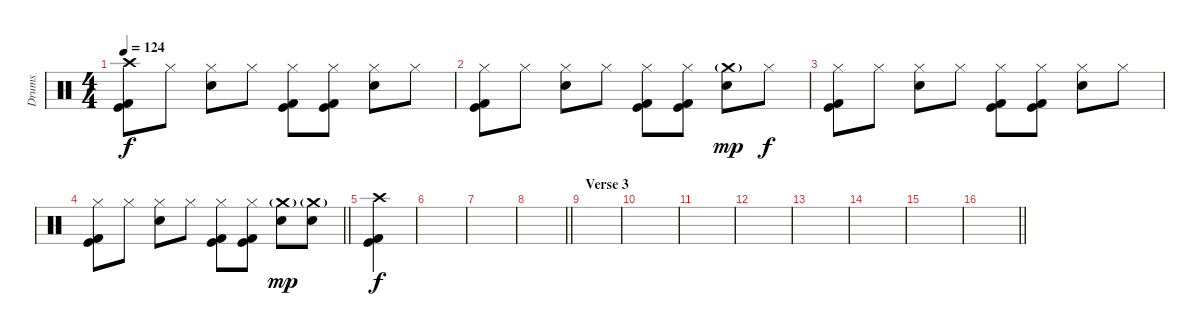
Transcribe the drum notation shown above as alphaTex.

\track ("Drums" "Drums") {instrument percussion}
\staff {score}
\articulation defaults
\ts (4 4)
\tempo 124
\clef neutral
\ks c
("Crash high (hit)" "Kick (hit)" "Kick (hit) 2").8{dy f} "Hi-Hat (closed)".8 ("Hi-Hat (closed)" "Electric Snare (hit)").8 "Hi-Hat (closed)".8 ("Hi-Hat (closed)" "Kick (hit)" "Kick (hit) 2").8 ("Hi-Hat (closed)" "Kick (hit)" "Kick (hit) 2").8 ("Hi-Hat (closed)" "Electric Snare (hit)").8 "Hi-Hat (closed)".8 |
("Hi-Hat (closed)" "Kick (hit)" "Kick (hit) 2").8 "Hi-Hat (closed)".8 ("Hi-Hat (closed)" "Electric Snare (hit)").8 "Hi-Hat (closed)".8 ("Hi-Hat (closed)" "Kick (hit)" "Kick (hit) 2").8 ("Hi-Hat (closed)" "Kick (hit)" "Kick (hit) 2").8 ("Crash medium (hit)"{g} "Electric Snare (hit)").8{dy mp} "Hi-Hat (closed)".8{dy f} |
("Hi-Hat (closed)" "Kick (hit)" "Kick (hit) 2").8 "Hi-Hat (closed)".8 ("Hi-Hat (closed)" "Electric Snare (hit)").8 "Hi-Hat (closed)".8 ("Hi-Hat (closed)" "Kick (hit)" "Kick (hit) 2").8 ("Hi-Hat (closed)" "Kick (hit)" "Kick (hit) 2").8 ("Hi-Hat (closed)" "Electric Snare (hit)").8 "Hi-Hat (closed)".8 |
\barLineRight lightlight
("Hi-Hat (closed)" "Kick (hit)" "Kick (hit) 2").8 "Hi-Hat (closed)".8 ("Hi-Hat (closed)" "Electric Snare (hit)").8 "Hi-Hat (closed)".8 ("Hi-Hat (closed)" "Kick (hit)" "Kick (hit) 2").8 ("Hi-Hat (closed)" "Kick (hit)" "Kick (hit) 2").8 ("Crash medium (hit)"{g} "Electric Snare (hit)").8{dy mp} ("Crash medium (hit)"{g} "Electric Snare (hit)").8 |
\section ("" "")
("Crash high (hit)" "Kick (hit)" "Kick (hit) 2").4{dy f} |
|
|
\barLineRight lightlight
|
\section ("" "Verse 3")
|
|
|
|
|
|
|
\barLineRight lightlight
